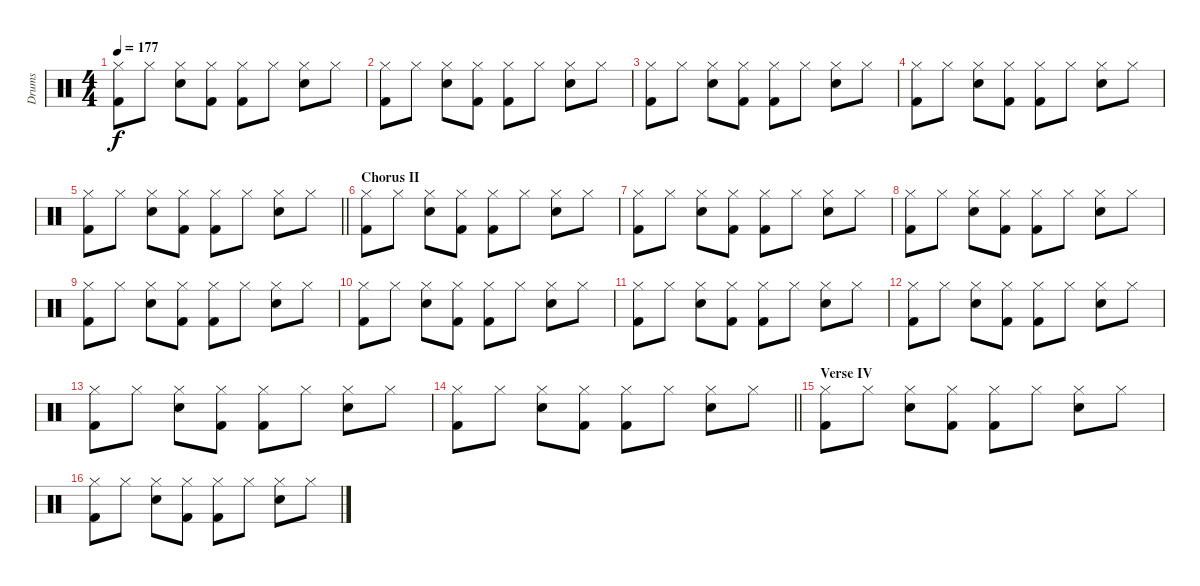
\track ("Drums" "Drums") {instrument percussion}
\staff {score}
\articulation defaults
\ts (4 4)
\tempo 177
\clef neutral
\ks c
("Hi-Hat (closed)" "Kick (hit) 2").8{dy f} "Hi-Hat (closed)".8 ("Hi-Hat (closed)" "Snare (hit) 2").8 ("Hi-Hat (closed)" "Kick (hit) 2").8 ("Hi-Hat (closed)" "Kick (hit) 2").8 "Hi-Hat (closed)".8 ("Hi-Hat (closed)" "Snare (hit) 2").8 "Hi-Hat (closed)".8 |
("Hi-Hat (closed)" "Kick (hit) 2").8 "Hi-Hat (closed)".8 ("Hi-Hat (closed)" "Snare (hit) 2").8 ("Hi-Hat (closed)" "Kick (hit) 2").8 ("Hi-Hat (closed)" "Kick (hit) 2").8 "Hi-Hat (closed)".8 ("Hi-Hat (closed)" "Snare (hit) 2").8 "Hi-Hat (closed)".8 |
("Hi-Hat (closed)" "Kick (hit) 2").8 "Hi-Hat (closed)".8 ("Hi-Hat (closed)" "Snare (hit) 2").8 ("Hi-Hat (closed)" "Kick (hit) 2").8 ("Hi-Hat (closed)" "Kick (hit) 2").8 "Hi-Hat (closed)".8 ("Hi-Hat (closed)" "Snare (hit) 2").8 "Hi-Hat (closed)".8 |
("Hi-Hat (closed)" "Kick (hit) 2").8 "Hi-Hat (closed)".8 ("Hi-Hat (closed)" "Snare (hit) 2").8 ("Hi-Hat (closed)" "Kick (hit) 2").8 ("Hi-Hat (closed)" "Kick (hit) 2").8 "Hi-Hat (closed)".8 ("Hi-Hat (closed)" "Snare (hit) 2").8 "Hi-Hat (closed)".8 |
\barLineRight lightlight
("Hi-Hat (closed)" "Kick (hit) 2").8 "Hi-Hat (closed)".8 ("Hi-Hat (closed)" "Snare (hit) 2").8 ("Hi-Hat (closed)" "Kick (hit) 2").8 ("Hi-Hat (closed)" "Kick (hit) 2").8 "Hi-Hat (closed)".8 ("Hi-Hat (closed)" "Snare (hit) 2").8 "Hi-Hat (closed)".8 |
\section ("" "Chorus II")
("Hi-Hat (closed)" "Kick (hit) 2").8 "Hi-Hat (closed)".8 ("Hi-Hat (closed)" "Snare (hit) 2").8 ("Hi-Hat (closed)" "Kick (hit) 2").8 ("Hi-Hat (closed)" "Kick (hit) 2").8 "Hi-Hat (closed)".8 ("Hi-Hat (closed)" "Snare (hit) 2").8 "Hi-Hat (closed)".8 |
("Hi-Hat (closed)" "Kick (hit) 2").8 "Hi-Hat (closed)".8 ("Hi-Hat (closed)" "Snare (hit) 2").8 ("Hi-Hat (closed)" "Kick (hit) 2").8 ("Hi-Hat (closed)" "Kick (hit) 2").8 "Hi-Hat (closed)".8 ("Hi-Hat (closed)" "Snare (hit) 2").8 "Hi-Hat (closed)".8 |
("Hi-Hat (closed)" "Kick (hit) 2").8 "Hi-Hat (closed)".8 ("Hi-Hat (closed)" "Snare (hit) 2").8 ("Hi-Hat (closed)" "Kick (hit) 2").8 ("Hi-Hat (closed)" "Kick (hit) 2").8 "Hi-Hat (closed)".8 ("Hi-Hat (closed)" "Snare (hit) 2").8 "Hi-Hat (closed)".8 |
("Hi-Hat (closed)" "Kick (hit) 2").8 "Hi-Hat (closed)".8 ("Hi-Hat (closed)" "Snare (hit) 2").8 ("Hi-Hat (closed)" "Kick (hit) 2").8 ("Hi-Hat (closed)" "Kick (hit) 2").8 "Hi-Hat (closed)".8 ("Hi-Hat (closed)" "Snare (hit) 2").8 "Hi-Hat (closed)".8 |
("Hi-Hat (closed)" "Kick (hit) 2").8 "Hi-Hat (closed)".8 ("Hi-Hat (closed)" "Snare (hit) 2").8 ("Hi-Hat (closed)" "Kick (hit) 2").8 ("Hi-Hat (closed)" "Kick (hit) 2").8 "Hi-Hat (closed)".8 ("Hi-Hat (closed)" "Snare (hit) 2").8 "Hi-Hat (closed)".8 |
("Hi-Hat (closed)" "Kick (hit) 2").8 "Hi-Hat (closed)".8 ("Hi-Hat (closed)" "Snare (hit) 2").8 ("Hi-Hat (closed)" "Kick (hit) 2").8 ("Hi-Hat (closed)" "Kick (hit) 2").8 "Hi-Hat (closed)".8 ("Hi-Hat (closed)" "Snare (hit) 2").8 "Hi-Hat (closed)".8 |
("Hi-Hat (closed)" "Kick (hit) 2").8 "Hi-Hat (closed)".8 ("Hi-Hat (closed)" "Snare (hit) 2").8 ("Hi-Hat (closed)" "Kick (hit) 2").8 ("Hi-Hat (closed)" "Kick (hit) 2").8 "Hi-Hat (closed)".8 ("Hi-Hat (closed)" "Snare (hit) 2").8 "Hi-Hat (closed)".8 |
("Hi-Hat (closed)" "Kick (hit) 2").8 "Hi-Hat (closed)".8 ("Hi-Hat (closed)" "Snare (hit) 2").8 ("Hi-Hat (closed)" "Kick (hit) 2").8 ("Hi-Hat (closed)" "Kick (hit) 2").8 "Hi-Hat (closed)".8 ("Hi-Hat (closed)" "Snare (hit) 2").8 "Hi-Hat (closed)".8 |
\barLineRight lightlight
("Hi-Hat (closed)" "Kick (hit) 2").8 "Hi-Hat (closed)".8 ("Hi-Hat (closed)" "Snare (hit) 2").8 ("Hi-Hat (closed)" "Kick (hit) 2").8 ("Hi-Hat (closed)" "Kick (hit) 2").8 "Hi-Hat (closed)".8 ("Hi-Hat (closed)" "Snare (hit) 2").8 "Hi-Hat (closed)".8 |
\section ("" "Verse IV")
("Hi-Hat (closed)" "Kick (hit) 2").8 "Hi-Hat (closed)".8 ("Hi-Hat (closed)" "Snare (hit) 2").8 ("Hi-Hat (closed)" "Kick (hit) 2").8 ("Hi-Hat (closed)" "Kick (hit) 2").8 "Hi-Hat (closed)".8 ("Hi-Hat (closed)" "Snare (hit) 2").8 "Hi-Hat (closed)".8 |
("Hi-Hat (closed)" "Kick (hit) 2").8 "Hi-Hat (closed)".8 ("Hi-Hat (closed)" "Snare (hit) 2").8 ("Hi-Hat (closed)" "Kick (hit) 2").8 ("Hi-Hat (closed)" "Kick (hit) 2").8 "Hi-Hat (closed)".8 ("Hi-Hat (closed)" "Snare (hit) 2").8 "Hi-Hat (closed)".8
